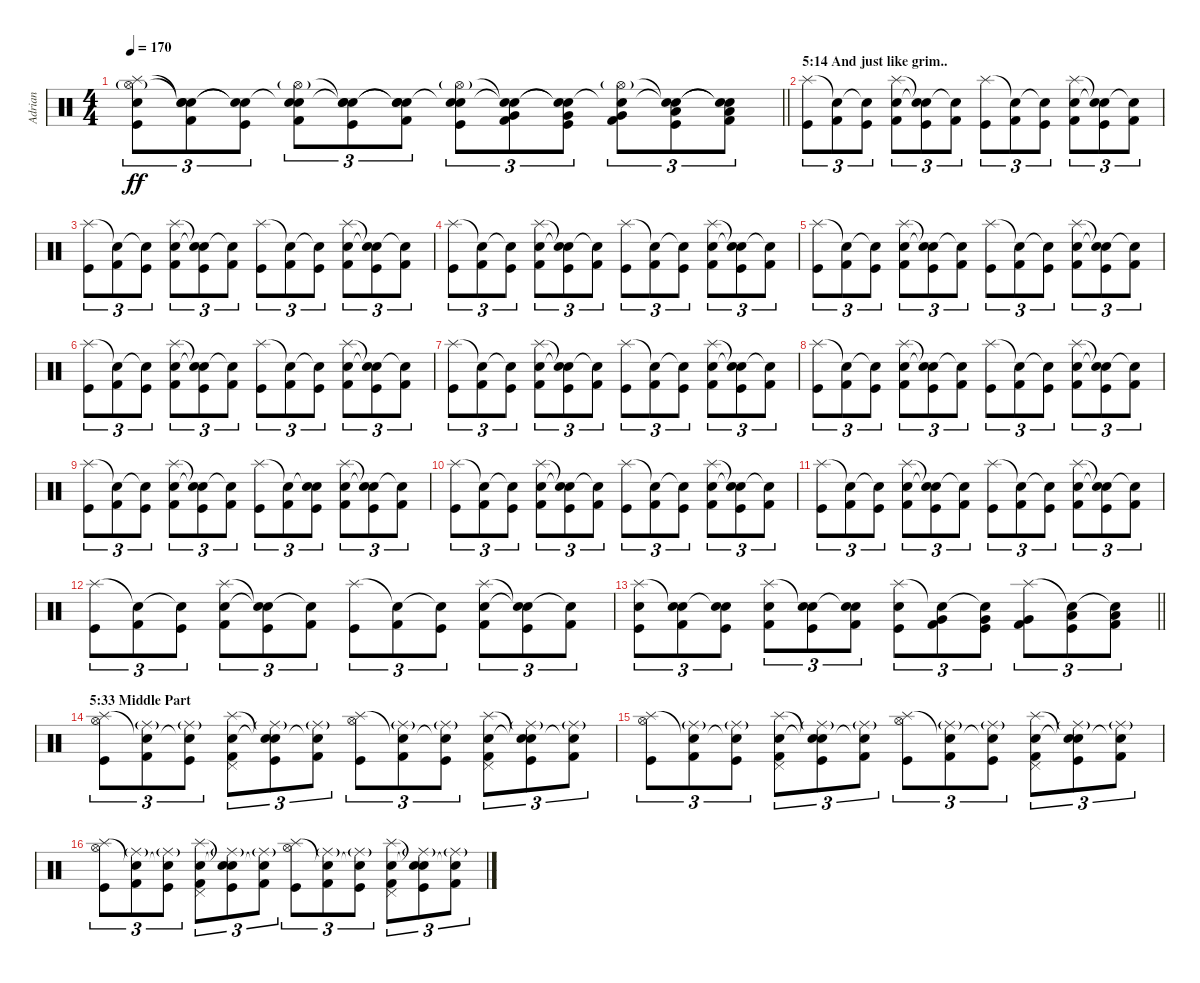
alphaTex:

\track ("Adrian" "Adrian") {instrument percussion}
\staff {score}
\articulation defaults
\ts (4 4)
\tempo 170
\clef neutral
\barLineRight lightlight
\ks c
("Splash (hit)"{t} "Hi-Hat (open)"{g} "Electric Snare (hit)" "Kick (hit)").8{tu (3 2) dy ff} ("Snare (hit)"{t} "Snare (hit)"{t} "Electric Snare (hit)" "Kick (hit) 2").8{tu (3 2)} ("Snare (hit)"{t} "Snare (hit)"{t} "Kick (hit)").8{tu (3 2)} ("Snare (hit)"{t} "Hi-Hat (open)"{g} "Electric Snare (hit)" "Kick (hit) 2").8{tu (3 2)} ("Snare (hit)"{t} "Snare (hit)"{t} "Electric Snare (hit)" "Kick (hit)").8{tu (3 2)} ("Snare (hit)"{t} "Snare (hit)"{t} "Electric Snare (hit)" "Kick (hit) 2").8{tu (3 2)} ("Snare (hit)"{t} "Hi-Hat (open)"{g} "Electric Snare (hit)" "Kick (hit)").8{tu (3 2)} ("Snare (hit)"{t} "Snare (hit)"{t} "Very Low Tom (hit)" "Kick (hit) 2").8{tu (3 2)} ("Snare (hit)"{t} "Snare (hit)"{t} "Very Low Tom (hit)" "Kick (hit)").8{tu (3 2)} ("Snare (hit)"{t} "Hi-Hat (open)"{g} "Very Low Tom (hit)" "Kick (hit) 2").8{tu (3 2)} ("Snare (hit)"{t} "Snare (hit)"{t} "Low Floor Tom (hit)" "Kick (hit)").8{tu (3 2)} ("Snare (hit)"{t} "Snare (hit)"{t} "Low Floor Tom (hit)" "Kick (hit) 2").8{tu (3 2)} |
\section ("" "5:14 And just like grim..")
("Splash (hit)" "Kick (hit)").8{tu (3 2)} ("Snare (hit)"{t} "Kick (hit) 2").8{tu (3 2)} ("Snare (hit)"{t} "Kick (hit)").8{tu (3 2)} ("Splash (hit)" "Electric Snare (hit)" "Kick (hit) 2").8{tu (3 2)} ("Snare (hit)"{t} "Snare (hit)"{t} "Kick (hit)").8{tu (3 2)} ("Snare (hit)"{t} "Kick (hit) 2").8{tu (3 2)} ("Splash (hit)" "Kick (hit)").8{tu (3 2)} ("Snare (hit)"{t} "Kick (hit) 2").8{tu (3 2)} ("Snare (hit)"{t} "Kick (hit)").8{tu (3 2)} ("Splash (hit)" "Electric Snare (hit)" "Kick (hit) 2").8{tu (3 2)} ("Snare (hit)"{t} "Snare (hit)"{t} "Kick (hit)").8{tu (3 2)} ("Snare (hit)"{t} "Kick (hit) 2").8{tu (3 2)} |
("Splash (hit)" "Kick (hit)").8{tu (3 2)} ("Snare (hit)"{t} "Kick (hit) 2").8{tu (3 2)} ("Snare (hit)"{t} "Kick (hit)").8{tu (3 2)} ("Splash (hit)" "Electric Snare (hit)" "Kick (hit) 2").8{tu (3 2)} ("Snare (hit)"{t} "Snare (hit)"{t} "Kick (hit)").8{tu (3 2)} ("Snare (hit)"{t} "Kick (hit) 2").8{tu (3 2)} ("Splash (hit)" "Kick (hit)").8{tu (3 2)} ("Snare (hit)"{t} "Kick (hit) 2").8{tu (3 2)} ("Snare (hit)"{t} "Kick (hit)").8{tu (3 2)} ("Splash (hit)" "Electric Snare (hit)" "Kick (hit) 2").8{tu (3 2)} ("Snare (hit)"{t} "Snare (hit)"{t} "Kick (hit)").8{tu (3 2)} ("Snare (hit)"{t} "Kick (hit) 2").8{tu (3 2)} |
("Splash (hit)" "Kick (hit)").8{tu (3 2)} ("Snare (hit)"{t} "Kick (hit) 2").8{tu (3 2)} ("Snare (hit)"{t} "Kick (hit)").8{tu (3 2)} ("Splash (hit)" "Electric Snare (hit)" "Kick (hit) 2").8{tu (3 2)} ("Snare (hit)"{t} "Snare (hit)"{t} "Kick (hit)").8{tu (3 2)} ("Snare (hit)"{t} "Kick (hit) 2").8{tu (3 2)} ("Splash (hit)" "Kick (hit)").8{tu (3 2)} ("Snare (hit)"{t} "Kick (hit) 2").8{tu (3 2)} ("Snare (hit)"{t} "Kick (hit)").8{tu (3 2)} ("Splash (hit)" "Electric Snare (hit)" "Kick (hit) 2").8{tu (3 2)} ("Snare (hit)"{t} "Snare (hit)"{t} "Kick (hit)").8{tu (3 2)} ("Snare (hit)"{t} "Kick (hit) 2").8{tu (3 2)} |
("Splash (hit)" "Kick (hit)").8{tu (3 2)} ("Snare (hit)"{t} "Kick (hit) 2").8{tu (3 2)} ("Snare (hit)"{t} "Kick (hit)").8{tu (3 2)} ("Splash (hit)" "Electric Snare (hit)" "Kick (hit) 2").8{tu (3 2)} ("Snare (hit)"{t} "Snare (hit)"{t} "Kick (hit)").8{tu (3 2)} ("Snare (hit)"{t} "Kick (hit) 2").8{tu (3 2)} ("Splash (hit)" "Kick (hit)").8{tu (3 2)} ("Snare (hit)"{t} "Kick (hit) 2").8{tu (3 2)} ("Snare (hit)"{t} "Kick (hit)").8{tu (3 2)} ("Splash (hit)" "Electric Snare (hit)" "Kick (hit) 2").8{tu (3 2)} ("Snare (hit)"{t} "Snare (hit)"{t} "Kick (hit)").8{tu (3 2)} ("Snare (hit)"{t} "Kick (hit) 2").8{tu (3 2)} |
("Splash (hit)" "Kick (hit)").8{tu (3 2)} ("Snare (hit)"{t} "Kick (hit) 2").8{tu (3 2)} ("Snare (hit)"{t} "Kick (hit)").8{tu (3 2)} ("Splash (hit)" "Electric Snare (hit)" "Kick (hit) 2").8{tu (3 2)} ("Snare (hit)"{t} "Snare (hit)"{t} "Kick (hit)").8{tu (3 2)} ("Snare (hit)"{t} "Kick (hit) 2").8{tu (3 2)} ("Splash (hit)" "Kick (hit)").8{tu (3 2)} ("Snare (hit)"{t} "Kick (hit) 2").8{tu (3 2)} ("Snare (hit)"{t} "Kick (hit)").8{tu (3 2)} ("Splash (hit)" "Electric Snare (hit)" "Kick (hit) 2").8{tu (3 2)} ("Snare (hit)"{t} "Snare (hit)"{t} "Kick (hit)").8{tu (3 2)} ("Snare (hit)"{t} "Kick (hit) 2").8{tu (3 2)} |
("Splash (hit)" "Kick (hit)").8{tu (3 2)} ("Snare (hit)"{t} "Kick (hit) 2").8{tu (3 2)} ("Snare (hit)"{t} "Kick (hit)").8{tu (3 2)} ("Splash (hit)" "Electric Snare (hit)" "Kick (hit) 2").8{tu (3 2)} ("Snare (hit)"{t} "Snare (hit)"{t} "Kick (hit)").8{tu (3 2)} ("Snare (hit)"{t} "Kick (hit) 2").8{tu (3 2)} ("Splash (hit)" "Kick (hit)").8{tu (3 2)} ("Snare (hit)"{t} "Kick (hit) 2").8{tu (3 2)} ("Snare (hit)"{t} "Kick (hit)").8{tu (3 2)} ("Splash (hit)" "Electric Snare (hit)" "Kick (hit) 2").8{tu (3 2)} ("Snare (hit)"{t} "Snare (hit)"{t} "Kick (hit)").8{tu (3 2)} ("Snare (hit)"{t} "Kick (hit) 2").8{tu (3 2)} |
("Splash (hit)" "Kick (hit)").8{tu (3 2)} ("Snare (hit)"{t} "Kick (hit) 2").8{tu (3 2)} ("Snare (hit)"{t} "Kick (hit)").8{tu (3 2)} ("Splash (hit)" "Electric Snare (hit)" "Kick (hit) 2").8{tu (3 2)} ("Snare (hit)"{t} "Snare (hit)"{t} "Kick (hit)").8{tu (3 2)} ("Snare (hit)"{t} "Kick (hit) 2").8{tu (3 2)} ("Splash (hit)" "Kick (hit)").8{tu (3 2)} ("Snare (hit)"{t} "Kick (hit) 2").8{tu (3 2)} ("Snare (hit)"{t} "Kick (hit)").8{tu (3 2)} ("Splash (hit)" "Electric Snare (hit)" "Kick (hit) 2").8{tu (3 2)} ("Snare (hit)"{t} "Snare (hit)"{t} "Kick (hit)").8{tu (3 2)} ("Snare (hit)"{t} "Kick (hit) 2").8{tu (3 2)} |
("Splash (hit)" "Kick (hit)").8{tu (3 2)} ("Snare (hit)"{t} "Kick (hit) 2").8{tu (3 2)} ("Snare (hit)"{t} "Kick (hit)").8{tu (3 2)} ("Splash (hit)" "Electric Snare (hit)" "Kick (hit) 2").8{tu (3 2)} ("Snare (hit)"{t} "Snare (hit)"{t} "Kick (hit)").8{tu (3 2)} ("Snare (hit)"{t} "Kick (hit) 2").8{tu (3 2)} ("Splash (hit)" "Kick (hit)").8{tu (3 2)} ("Snare (hit)"{t} "Kick (hit) 2").8{tu (3 2)} ("Snare (hit)"{t} "Electric Snare (hit)" "Kick (hit)").8{tu (3 2)} ("Splash (hit)" "Electric Snare (hit)" "Kick (hit) 2").8{tu (3 2)} ("Snare (hit)"{t} "Snare (hit)"{t} "Kick (hit)").8{tu (3 2)} ("Snare (hit)"{t} "Kick (hit) 2").8{tu (3 2)} |
("Splash (hit)" "Kick (hit)").8{tu (3 2)} ("Snare (hit)"{t} "Kick (hit) 2").8{tu (3 2)} ("Snare (hit)"{t} "Kick (hit)").8{tu (3 2)} ("Splash (hit)" "Electric Snare (hit)" "Kick (hit) 2").8{tu (3 2)} ("Snare (hit)"{t} "Snare (hit)"{t} "Kick (hit)").8{tu (3 2)} ("Snare (hit)"{t} "Kick (hit) 2").8{tu (3 2)} ("Splash (hit)" "Kick (hit)").8{tu (3 2)} ("Snare (hit)"{t} "Kick (hit) 2").8{tu (3 2)} ("Snare (hit)"{t} "Kick (hit)").8{tu (3 2)} ("Splash (hit)" "Electric Snare (hit)" "Kick (hit) 2").8{tu (3 2)} ("Snare (hit)"{t} "Snare (hit)"{t} "Kick (hit)").8{tu (3 2)} ("Snare (hit)"{t} "Kick (hit) 2").8{tu (3 2)} |
("Splash (hit)" "Kick (hit)").8{tu (3 2)} ("Snare (hit)"{t} "Kick (hit) 2").8{tu (3 2)} ("Snare (hit)"{t} "Kick (hit)").8{tu (3 2)} ("Splash (hit)" "Electric Snare (hit)" "Kick (hit) 2").8{tu (3 2)} ("Snare (hit)"{t} "Snare (hit)"{t} "Kick (hit)").8{tu (3 2)} ("Snare (hit)"{t} "Kick (hit) 2").8{tu (3 2)} ("Splash (hit)" "Kick (hit)").8{tu (3 2)} ("Snare (hit)"{t} "Kick (hit) 2").8{tu (3 2)} ("Snare (hit)"{t} "Kick (hit)").8{tu (3 2)} ("Splash (hit)" "Electric Snare (hit)" "Kick (hit) 2").8{tu (3 2)} ("Snare (hit)"{t} "Snare (hit)"{t} "Kick (hit)").8{tu (3 2)} ("Snare (hit)"{t} "Kick (hit) 2").8{tu (3 2)} |
("Splash (hit)" "Kick (hit)").8{tu (3 2)} ("Snare (hit)"{t} "Kick (hit) 2").8{tu (3 2)} ("Snare (hit)"{t} "Kick (hit)").8{tu (3 2)} ("Splash (hit)" "Electric Snare (hit)" "Kick (hit) 2").8{tu (3 2)} ("Snare (hit)"{t} "Snare (hit)"{t} "Kick (hit)").8{tu (3 2)} ("Snare (hit)"{t} "Kick (hit) 2").8{tu (3 2)} ("Splash (hit)" "Kick (hit)").8{tu (3 2)} ("Snare (hit)"{t} "Kick (hit) 2").8{tu (3 2)} ("Snare (hit)"{t} "Kick (hit)").8{tu (3 2)} ("Splash (hit)" "Electric Snare (hit)" "Kick (hit) 2").8{tu (3 2)} ("Snare (hit)"{t} "Snare (hit)"{t} "Kick (hit)").8{tu (3 2)} ("Snare (hit)"{t} "Kick (hit) 2").8{tu (3 2)} |
\barLineRight lightlight
("Splash (hit)" "Electric Snare (hit)" "Kick (hit)").8{tu (3 2)} ("Snare (hit)"{t} "Electric Snare (hit)" "Kick (hit) 2").8{tu (3 2)} ("Snare (hit)"{t} "Electric Snare (hit)" "Kick (hit)").8{tu (3 2)} ("Splash (hit)" "Electric Snare (hit)" "Kick (hit) 2").8{tu (3 2)} ("Snare (hit)"{t} "Electric Snare (hit)" "Kick (hit)").8{tu (3 2)} ("Snare (hit)"{t} "Electric Snare (hit)" "Kick (hit) 2").8{tu (3 2)} ("Splash (hit)" "Electric Snare (hit)" "Kick (hit)").8{tu (3 2)} ("Snare (hit)"{t} "Very Low Tom (hit)" "Kick (hit) 2").8{tu (3 2)} ("Snare (hit)"{t} "Very Low Tom (hit)" "Kick (hit)").8{tu (3 2)} ("Splash (hit)" "Very Low Tom (hit)" "Kick (hit) 2").8{tu (3 2)} ("Snare (hit)"{t} "Low Floor Tom (hit)" "Kick (hit)").8{tu (3 2)} ("Snare (hit)"{t} "Low Floor Tom (hit)" "Kick (hit) 2").8{tu (3 2)} |
\section ("" "5:33 Middle Part")
("Splash (hit)" "Hi-Hat (open)" "Kick (hit)").8{tu (3 2)} ("Snare (hit)"{t} "Ride (middle)"{g} "Kick (hit) 2").8{tu (3 2)} ("Snare (hit)"{t} "Ride (middle)"{g} "Kick (hit)").8{tu (3 2)} ("Splash (hit)" "Pedal Hi-Hat (hit)" "Electric Snare (hit)" "Kick (hit) 2").8{tu (3 2)} ("Snare (hit)"{t} "Ride (middle)"{g} "Snare (hit)"{t} "Kick (hit)").8{tu (3 2)} ("Snare (hit)"{t} "Ride (middle)"{g} "Kick (hit) 2").8{tu (3 2)} ("Splash (hit)" "Hi-Hat (open)" "Kick (hit)").8{tu (3 2)} ("Snare (hit)"{t} "Ride (middle)"{g} "Kick (hit) 2").8{tu (3 2)} ("Snare (hit)"{t} "Ride (middle)"{g} "Kick (hit)").8{tu (3 2)} ("Splash (hit)" "Pedal Hi-Hat (hit)" "Electric Snare (hit)" "Kick (hit) 2").8{tu (3 2)} ("Snare (hit)"{t} "Ride (middle)"{g} "Snare (hit)"{t} "Kick (hit)").8{tu (3 2)} ("Snare (hit)"{t} "Ride (middle)"{g} "Kick (hit) 2").8{tu (3 2)} |
("Splash (hit)" "Hi-Hat (open)" "Kick (hit)").8{tu (3 2)} ("Snare (hit)"{t} "Ride (middle)"{g} "Kick (hit) 2").8{tu (3 2)} ("Snare (hit)"{t} "Ride (middle)"{g} "Kick (hit)").8{tu (3 2)} ("Splash (hit)" "Pedal Hi-Hat (hit)" "Electric Snare (hit)" "Kick (hit) 2").8{tu (3 2)} ("Snare (hit)"{t} "Ride (middle)"{g} "Snare (hit)"{t} "Kick (hit)").8{tu (3 2)} ("Snare (hit)"{t} "Ride (middle)"{g} "Kick (hit) 2").8{tu (3 2)} ("Splash (hit)" "Hi-Hat (open)" "Kick (hit)").8{tu (3 2)} ("Snare (hit)"{t} "Ride (middle)"{g} "Kick (hit) 2").8{tu (3 2)} ("Snare (hit)"{t} "Ride (middle)"{g} "Kick (hit)").8{tu (3 2)} ("Splash (hit)" "Pedal Hi-Hat (hit)" "Electric Snare (hit)" "Kick (hit) 2").8{tu (3 2)} ("Snare (hit)"{t} "Ride (middle)"{g} "Snare (hit)"{t} "Kick (hit)").8{tu (3 2)} ("Snare (hit)"{t} "Ride (middle)"{g} "Kick (hit) 2").8{tu (3 2)} |
("Splash (hit)" "Hi-Hat (open)" "Kick (hit)").8{tu (3 2)} ("Snare (hit)"{t} "Ride (middle)"{g} "Kick (hit) 2").8{tu (3 2)} ("Snare (hit)"{t} "Ride (middle)"{g} "Kick (hit)").8{tu (3 2)} ("Splash (hit)" "Pedal Hi-Hat (hit)" "Electric Snare (hit)" "Kick (hit) 2").8{tu (3 2)} ("Snare (hit)"{t} "Ride (middle)"{g} "Snare (hit)"{t} "Kick (hit)").8{tu (3 2)} ("Snare (hit)"{t} "Ride (middle)"{g} "Kick (hit) 2").8{tu (3 2)} ("Splash (hit)" "Hi-Hat (open)" "Kick (hit)").8{tu (3 2)} ("Snare (hit)"{t} "Ride (middle)"{g} "Kick (hit) 2").8{tu (3 2)} ("Snare (hit)"{t} "Ride (middle)"{g} "Kick (hit)").8{tu (3 2)} ("Splash (hit)" "Pedal Hi-Hat (hit)" "Electric Snare (hit)" "Kick (hit) 2").8{tu (3 2)} ("Snare (hit)"{t} "Ride (middle)"{g} "Snare (hit)"{t} "Kick (hit)").8{tu (3 2)} ("Snare (hit)"{t} "Ride (middle)"{g} "Kick (hit) 2").8{tu (3 2)}
